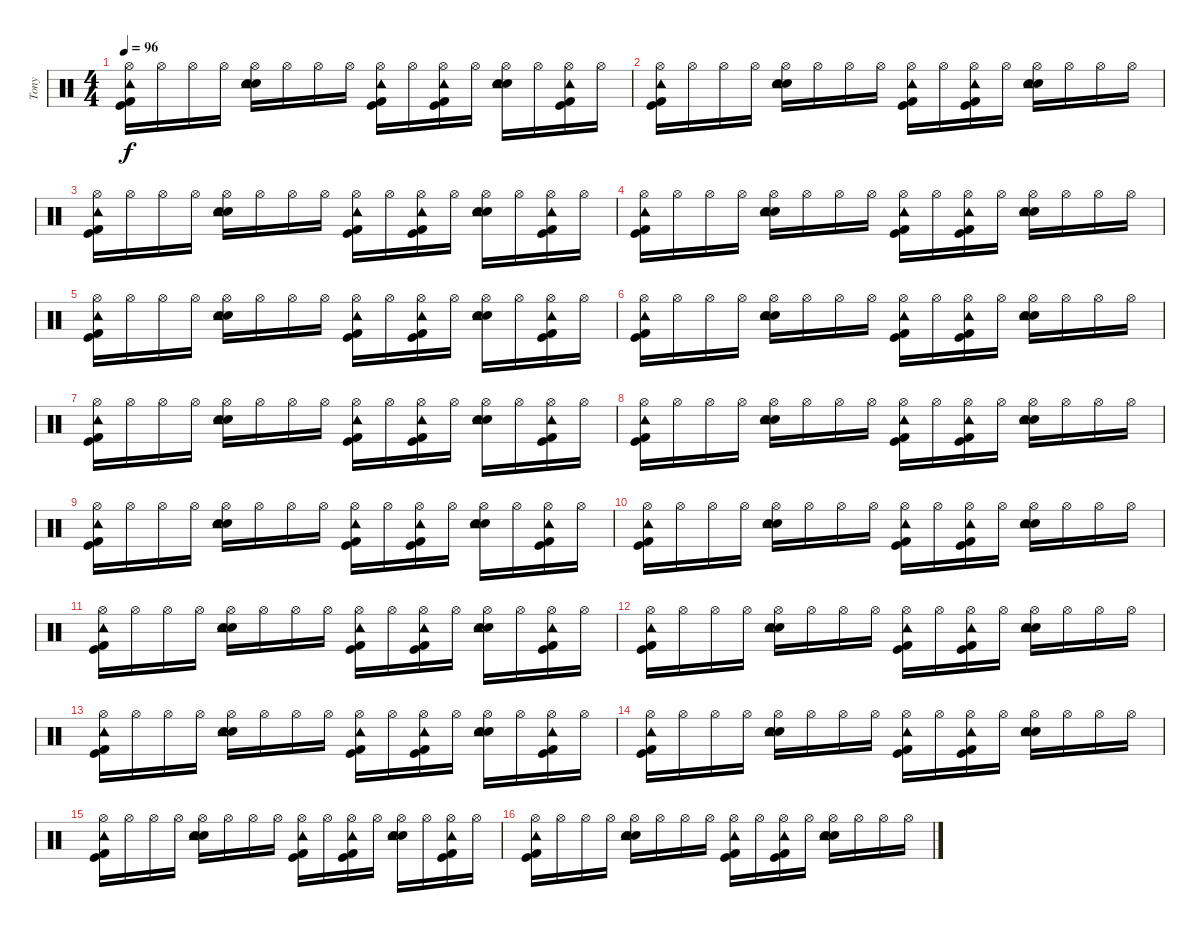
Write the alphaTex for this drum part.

\track ("Tony" "Tony") {instrument percussion}
\staff {score}
\articulation defaults
\ts (4 4)
\tempo 96
\clef neutral
\ks c
("Kick (hit)" "Kick (hit) 2" "Tambourine (hit)" "Hi-Hat (open)").16{dy f} "Hi-Hat (open)".16 "Hi-Hat (open)".16 "Hi-Hat (open)".16 ("Electric Snare (hit)" "Snare (hit) 2" "Tambourine (hit)" "Hi-Hat (open)").16 "Hi-Hat (open)".16 "Hi-Hat (open)".16 "Hi-Hat (open)".16 ("Kick (hit)" "Kick (hit) 2" "Tambourine (hit)" "Hi-Hat (open)").16 "Hi-Hat (open)".16 ("Kick (hit)" "Kick (hit) 2" "Tambourine (hit)" "Hi-Hat (open)").16 "Hi-Hat (open)".16 ("Electric Snare (hit)" "Snare (hit) 2" "Tambourine (hit)" "Hi-Hat (open)").16 "Hi-Hat (open)".16 ("Kick (hit)" "Kick (hit) 2" "Tambourine (hit)" "Hi-Hat (open)").16 "Hi-Hat (open)".16 |
("Kick (hit)" "Kick (hit) 2" "Tambourine (hit)" "Hi-Hat (open)").16 "Hi-Hat (open)".16 "Hi-Hat (open)".16 "Hi-Hat (open)".16 ("Electric Snare (hit)" "Snare (hit) 2" "Tambourine (hit)" "Hi-Hat (open)").16 "Hi-Hat (open)".16 "Hi-Hat (open)".16 "Hi-Hat (open)".16 ("Kick (hit)" "Kick (hit) 2" "Tambourine (hit)" "Hi-Hat (open)").16 "Hi-Hat (open)".16 ("Kick (hit)" "Kick (hit) 2" "Tambourine (hit)" "Hi-Hat (open)").16 "Hi-Hat (open)".16 ("Electric Snare (hit)" "Snare (hit) 2" "Tambourine (hit)" "Hi-Hat (open)").16 "Hi-Hat (open)".16 "Hi-Hat (open)".16 "Hi-Hat (open)".16 |
("Kick (hit)" "Kick (hit) 2" "Tambourine (hit)" "Hi-Hat (open)").16 "Hi-Hat (open)".16 "Hi-Hat (open)".16 "Hi-Hat (open)".16 ("Electric Snare (hit)" "Snare (hit) 2" "Tambourine (hit)" "Hi-Hat (open)").16 "Hi-Hat (open)".16 "Hi-Hat (open)".16 "Hi-Hat (open)".16 ("Kick (hit)" "Kick (hit) 2" "Tambourine (hit)" "Hi-Hat (open)").16 "Hi-Hat (open)".16 ("Kick (hit)" "Kick (hit) 2" "Tambourine (hit)" "Hi-Hat (open)").16 "Hi-Hat (open)".16 ("Electric Snare (hit)" "Snare (hit) 2" "Tambourine (hit)" "Hi-Hat (open)").16 "Hi-Hat (open)".16 ("Kick (hit)" "Kick (hit) 2" "Tambourine (hit)" "Hi-Hat (open)").16 "Hi-Hat (open)".16 |
("Kick (hit)" "Kick (hit) 2" "Tambourine (hit)" "Hi-Hat (open)").16 "Hi-Hat (open)".16 "Hi-Hat (open)".16 "Hi-Hat (open)".16 ("Electric Snare (hit)" "Snare (hit) 2" "Tambourine (hit)" "Hi-Hat (open)").16 "Hi-Hat (open)".16 "Hi-Hat (open)".16 "Hi-Hat (open)".16 ("Kick (hit)" "Kick (hit) 2" "Tambourine (hit)" "Hi-Hat (open)").16 "Hi-Hat (open)".16 ("Kick (hit)" "Kick (hit) 2" "Tambourine (hit)" "Hi-Hat (open)").16 "Hi-Hat (open)".16 ("Electric Snare (hit)" "Snare (hit) 2" "Tambourine (hit)" "Hi-Hat (open)").16 "Hi-Hat (open)".16 "Hi-Hat (open)".16 "Hi-Hat (open)".16 |
("Kick (hit)" "Kick (hit) 2" "Tambourine (hit)" "Hi-Hat (open)").16 "Hi-Hat (open)".16 "Hi-Hat (open)".16 "Hi-Hat (open)".16 ("Electric Snare (hit)" "Snare (hit) 2" "Tambourine (hit)" "Hi-Hat (open)").16 "Hi-Hat (open)".16 "Hi-Hat (open)".16 "Hi-Hat (open)".16 ("Kick (hit)" "Kick (hit) 2" "Tambourine (hit)" "Hi-Hat (open)").16 "Hi-Hat (open)".16 ("Kick (hit)" "Kick (hit) 2" "Tambourine (hit)" "Hi-Hat (open)").16 "Hi-Hat (open)".16 ("Electric Snare (hit)" "Snare (hit) 2" "Tambourine (hit)" "Hi-Hat (open)").16 "Hi-Hat (open)".16 ("Kick (hit)" "Kick (hit) 2" "Tambourine (hit)" "Hi-Hat (open)").16 "Hi-Hat (open)".16 |
("Kick (hit)" "Kick (hit) 2" "Tambourine (hit)" "Hi-Hat (open)").16 "Hi-Hat (open)".16 "Hi-Hat (open)".16 "Hi-Hat (open)".16 ("Electric Snare (hit)" "Snare (hit) 2" "Tambourine (hit)" "Hi-Hat (open)").16 "Hi-Hat (open)".16 "Hi-Hat (open)".16 "Hi-Hat (open)".16 ("Kick (hit)" "Kick (hit) 2" "Tambourine (hit)" "Hi-Hat (open)").16 "Hi-Hat (open)".16 ("Kick (hit)" "Kick (hit) 2" "Tambourine (hit)" "Hi-Hat (open)").16 "Hi-Hat (open)".16 ("Electric Snare (hit)" "Snare (hit) 2" "Tambourine (hit)" "Hi-Hat (open)").16 "Hi-Hat (open)".16 "Hi-Hat (open)".16 "Hi-Hat (open)".16 |
("Kick (hit)" "Kick (hit) 2" "Tambourine (hit)" "Hi-Hat (open)").16 "Hi-Hat (open)".16 "Hi-Hat (open)".16 "Hi-Hat (open)".16 ("Electric Snare (hit)" "Snare (hit) 2" "Tambourine (hit)" "Hi-Hat (open)").16 "Hi-Hat (open)".16 "Hi-Hat (open)".16 "Hi-Hat (open)".16 ("Kick (hit)" "Kick (hit) 2" "Tambourine (hit)" "Hi-Hat (open)").16 "Hi-Hat (open)".16 ("Kick (hit)" "Kick (hit) 2" "Tambourine (hit)" "Hi-Hat (open)").16 "Hi-Hat (open)".16 ("Electric Snare (hit)" "Snare (hit) 2" "Tambourine (hit)" "Hi-Hat (open)").16 "Hi-Hat (open)".16 ("Kick (hit)" "Kick (hit) 2" "Tambourine (hit)" "Hi-Hat (open)").16 "Hi-Hat (open)".16 |
("Kick (hit)" "Kick (hit) 2" "Tambourine (hit)" "Hi-Hat (open)").16 "Hi-Hat (open)".16 "Hi-Hat (open)".16 "Hi-Hat (open)".16 ("Electric Snare (hit)" "Snare (hit) 2" "Tambourine (hit)" "Hi-Hat (open)").16 "Hi-Hat (open)".16 "Hi-Hat (open)".16 "Hi-Hat (open)".16 ("Kick (hit)" "Kick (hit) 2" "Tambourine (hit)" "Hi-Hat (open)").16 "Hi-Hat (open)".16 ("Kick (hit)" "Kick (hit) 2" "Tambourine (hit)" "Hi-Hat (open)").16 "Hi-Hat (open)".16 ("Electric Snare (hit)" "Snare (hit) 2" "Tambourine (hit)" "Hi-Hat (open)").16 "Hi-Hat (open)".16 "Hi-Hat (open)".16 "Hi-Hat (open)".16 |
("Kick (hit)" "Kick (hit) 2" "Tambourine (hit)" "Hi-Hat (open)").16 "Hi-Hat (open)".16 "Hi-Hat (open)".16 "Hi-Hat (open)".16 ("Electric Snare (hit)" "Snare (hit) 2" "Tambourine (hit)" "Hi-Hat (open)").16 "Hi-Hat (open)".16 "Hi-Hat (open)".16 "Hi-Hat (open)".16 ("Kick (hit)" "Kick (hit) 2" "Tambourine (hit)" "Hi-Hat (open)").16 "Hi-Hat (open)".16 ("Kick (hit)" "Kick (hit) 2" "Tambourine (hit)" "Hi-Hat (open)").16 "Hi-Hat (open)".16 ("Electric Snare (hit)" "Snare (hit) 2" "Tambourine (hit)" "Hi-Hat (open)").16 "Hi-Hat (open)".16 ("Kick (hit)" "Kick (hit) 2" "Tambourine (hit)" "Hi-Hat (open)").16 "Hi-Hat (open)".16 |
("Kick (hit)" "Kick (hit) 2" "Tambourine (hit)" "Hi-Hat (open)").16 "Hi-Hat (open)".16 "Hi-Hat (open)".16 "Hi-Hat (open)".16 ("Electric Snare (hit)" "Snare (hit) 2" "Tambourine (hit)" "Hi-Hat (open)").16 "Hi-Hat (open)".16 "Hi-Hat (open)".16 "Hi-Hat (open)".16 ("Kick (hit)" "Kick (hit) 2" "Tambourine (hit)" "Hi-Hat (open)").16 "Hi-Hat (open)".16 ("Kick (hit)" "Kick (hit) 2" "Tambourine (hit)" "Hi-Hat (open)").16 "Hi-Hat (open)".16 ("Electric Snare (hit)" "Snare (hit) 2" "Tambourine (hit)" "Hi-Hat (open)").16 "Hi-Hat (open)".16 "Hi-Hat (open)".16 "Hi-Hat (open)".16 |
("Kick (hit)" "Kick (hit) 2" "Tambourine (hit)" "Hi-Hat (open)").16 "Hi-Hat (open)".16 "Hi-Hat (open)".16 "Hi-Hat (open)".16 ("Electric Snare (hit)" "Snare (hit) 2" "Tambourine (hit)" "Hi-Hat (open)").16 "Hi-Hat (open)".16 "Hi-Hat (open)".16 "Hi-Hat (open)".16 ("Kick (hit)" "Kick (hit) 2" "Tambourine (hit)" "Hi-Hat (open)").16 "Hi-Hat (open)".16 ("Kick (hit)" "Kick (hit) 2" "Tambourine (hit)" "Hi-Hat (open)").16 "Hi-Hat (open)".16 ("Electric Snare (hit)" "Snare (hit) 2" "Tambourine (hit)" "Hi-Hat (open)").16 "Hi-Hat (open)".16 ("Kick (hit)" "Kick (hit) 2" "Tambourine (hit)" "Hi-Hat (open)").16 "Hi-Hat (open)".16 |
("Kick (hit)" "Kick (hit) 2" "Tambourine (hit)" "Hi-Hat (open)").16 "Hi-Hat (open)".16 "Hi-Hat (open)".16 "Hi-Hat (open)".16 ("Electric Snare (hit)" "Snare (hit) 2" "Tambourine (hit)" "Hi-Hat (open)").16 "Hi-Hat (open)".16 "Hi-Hat (open)".16 "Hi-Hat (open)".16 ("Kick (hit)" "Kick (hit) 2" "Tambourine (hit)" "Hi-Hat (open)").16 "Hi-Hat (open)".16 ("Kick (hit)" "Kick (hit) 2" "Tambourine (hit)" "Hi-Hat (open)").16 "Hi-Hat (open)".16 ("Electric Snare (hit)" "Snare (hit) 2" "Tambourine (hit)" "Hi-Hat (open)").16 "Hi-Hat (open)".16 "Hi-Hat (open)".16 "Hi-Hat (open)".16 |
("Kick (hit)" "Kick (hit) 2" "Tambourine (hit)" "Hi-Hat (open)").16 "Hi-Hat (open)".16 "Hi-Hat (open)".16 "Hi-Hat (open)".16 ("Electric Snare (hit)" "Snare (hit) 2" "Tambourine (hit)" "Hi-Hat (open)").16 "Hi-Hat (open)".16 "Hi-Hat (open)".16 "Hi-Hat (open)".16 ("Kick (hit)" "Kick (hit) 2" "Tambourine (hit)" "Hi-Hat (open)").16 "Hi-Hat (open)".16 ("Kick (hit)" "Kick (hit) 2" "Tambourine (hit)" "Hi-Hat (open)").16 "Hi-Hat (open)".16 ("Electric Snare (hit)" "Snare (hit) 2" "Tambourine (hit)" "Hi-Hat (open)").16 "Hi-Hat (open)".16 ("Kick (hit)" "Kick (hit) 2" "Tambourine (hit)" "Hi-Hat (open)").16 "Hi-Hat (open)".16 |
("Kick (hit)" "Kick (hit) 2" "Tambourine (hit)" "Hi-Hat (open)").16 "Hi-Hat (open)".16 "Hi-Hat (open)".16 "Hi-Hat (open)".16 ("Electric Snare (hit)" "Snare (hit) 2" "Tambourine (hit)" "Hi-Hat (open)").16 "Hi-Hat (open)".16 "Hi-Hat (open)".16 "Hi-Hat (open)".16 ("Kick (hit)" "Kick (hit) 2" "Tambourine (hit)" "Hi-Hat (open)").16 "Hi-Hat (open)".16 ("Kick (hit)" "Kick (hit) 2" "Tambourine (hit)" "Hi-Hat (open)").16 "Hi-Hat (open)".16 ("Electric Snare (hit)" "Snare (hit) 2" "Tambourine (hit)" "Hi-Hat (open)").16 "Hi-Hat (open)".16 "Hi-Hat (open)".16 "Hi-Hat (open)".16 |
("Kick (hit)" "Kick (hit) 2" "Tambourine (hit)" "Hi-Hat (open)").16 "Hi-Hat (open)".16 "Hi-Hat (open)".16 "Hi-Hat (open)".16 ("Electric Snare (hit)" "Snare (hit) 2" "Tambourine (hit)" "Hi-Hat (open)").16 "Hi-Hat (open)".16 "Hi-Hat (open)".16 "Hi-Hat (open)".16 ("Kick (hit)" "Kick (hit) 2" "Tambourine (hit)" "Hi-Hat (open)").16 "Hi-Hat (open)".16 ("Kick (hit)" "Kick (hit) 2" "Tambourine (hit)" "Hi-Hat (open)").16 "Hi-Hat (open)".16 ("Electric Snare (hit)" "Snare (hit) 2" "Tambourine (hit)" "Hi-Hat (open)").16 "Hi-Hat (open)".16 ("Kick (hit)" "Kick (hit) 2" "Tambourine (hit)" "Hi-Hat (open)").16 "Hi-Hat (open)".16 |
("Kick (hit)" "Kick (hit) 2" "Tambourine (hit)" "Hi-Hat (open)").16 "Hi-Hat (open)".16 "Hi-Hat (open)".16 "Hi-Hat (open)".16 ("Electric Snare (hit)" "Snare (hit) 2" "Tambourine (hit)" "Hi-Hat (open)").16 "Hi-Hat (open)".16 "Hi-Hat (open)".16 "Hi-Hat (open)".16 ("Kick (hit)" "Kick (hit) 2" "Tambourine (hit)" "Hi-Hat (open)").16 "Hi-Hat (open)".16 ("Kick (hit)" "Kick (hit) 2" "Tambourine (hit)" "Hi-Hat (open)").16 "Hi-Hat (open)".16 ("Electric Snare (hit)" "Snare (hit) 2" "Tambourine (hit)" "Hi-Hat (open)").16 "Hi-Hat (open)".16 "Hi-Hat (open)".16 "Hi-Hat (open)".16
